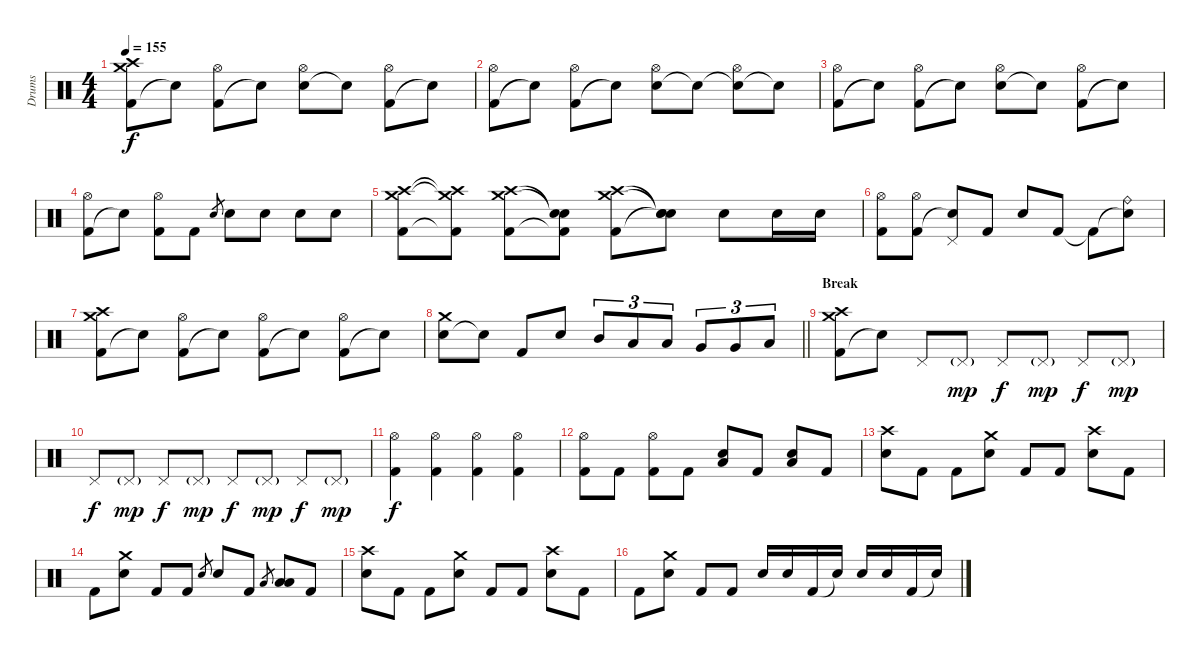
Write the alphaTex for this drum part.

\track ("Drums" "Drums") {instrument percussion}
\staff {score}
\articulation defaults
\ts (4 4)
\tempo 155
\clef neutral
\ks c
("Kick (hit) 2" "Crash medium (hit)" "Crash high (hit)").8{dy f} "Snare (hit)"{t}.8 ("Kick (hit) 2" "Hi-Hat (open)").8 "Snare (hit)"{t}.8 ("Electric Snare (hit)" "Hi-Hat (open)").8 "Snare (hit)"{t}.8 ("Kick (hit) 2" "Hi-Hat (open)").8 "Snare (hit)"{t}.8 |
("Kick (hit) 2" "Hi-Hat (open)").8 "Snare (hit)"{t}.8 ("Kick (hit) 2" "Hi-Hat (open)").8 "Snare (hit)"{t}.8 ("Electric Snare (hit)" "Hi-Hat (open)").8 "Snare (hit)"{t}.8 ("Snare (hit)"{t} "Hi-Hat (open)").8 "Snare (hit)"{t}.8 |
("Kick (hit) 2" "Hi-Hat (open)").8 "Snare (hit)"{t}.8 ("Kick (hit) 2" "Hi-Hat (open)").8 "Snare (hit)"{t}.8 ("Electric Snare (hit)" "Hi-Hat (open)").8 "Snare (hit)"{t}.8 ("Kick (hit) 2" "Hi-Hat (open)").8 "Snare (hit)"{t}.8 |
("Kick (hit) 2" "Hi-Hat (open)").8 "Snare (hit)"{t}.8 ("Kick (hit) 2" "Hi-Hat (open)").8 "Kick (hit) 2".8 "Electric Snare (hit)".8{gr} "Electric Snare (hit)".8 "Electric Snare (hit)".8 "Electric Snare (hit)".8 "Electric Snare (hit)".8 |
("Kick (hit) 2" "Crash high (hit)" "Crash medium (hit)").8 ("Kick (hit) 2"{t} "Crash high (hit)"{t} "Crash medium (hit)"{t}).8 ("Kick (hit) 2" "Crash high (hit)" "Crash medium (hit)").8 ("Kick (hit) 2"{t} "Snare (hit)"{t} "Snare (hit)"{t}).8 ("Kick (hit) 2" "Crash high (hit)" "Crash medium (hit)").8 ("Snare (hit)"{t} "Snare (hit)"{t} "Snare (hit)"{t}).8 "Electric Snare (hit)".8 "Electric Snare (hit)".16 "Electric Snare (hit)".16 |
("Kick (hit) 2" "Hi-Hat (open)").8 ("Kick (hit) 2" "Hi-Hat (open)").8 ("Snare (hit)"{t} "Pedal Hi-Hat (hit)").8 "Kick (hit) 2".8 "Electric Snare (hit)".8 "Kick (hit) 2".8 "Kick (hit) 2"{t}.8 ("Snare (hit)"{t} "Ride (bell)").8 |
("Kick (hit) 2" "Crash medium (hit)" "Crash high (hit)").8 "Snare (hit)"{t}.8 ("Kick (hit) 2" "Hi-Hat (open)").8 "Snare (hit)"{t}.8 ("Kick (hit) 2" "Hi-Hat (open)").8 "Snare (hit)"{t}.8 ("Kick (hit) 2" "Hi-Hat (open)").8 "Snare (hit)"{t}.8 |
\barLineRight lightlight
("Electric Snare (hit)" "Crash medium (hit)").8 "Snare (hit)"{t}.8 "Kick (hit) 2".8 "Electric Snare (hit)".8 "Mid Tom (hit)".8{tu (3 2)} "Low Tom (hit)".8{tu (3 2)} "Low Tom (hit)".8{tu (3 2)} "Very Low Tom (hit)".8{tu (3 2)} "Very Low Tom (hit)".8{tu (3 2)} "Low Floor Tom (hit)".8{tu (3 2)} |
\section ("" "Break")
("Kick (hit) 2" "Crash medium (hit)" "Crash high (hit)").8 "Snare (hit)"{t}.8 "Pedal Hi-Hat (hit)".8 "Pedal Hi-Hat (hit)"{g}.8{dy mp} "Pedal Hi-Hat (hit)".8{dy f} "Pedal Hi-Hat (hit)"{g}.8{dy mp} "Pedal Hi-Hat (hit)".8{dy f} "Pedal Hi-Hat (hit)"{g}.8{dy mp} |
"Pedal Hi-Hat (hit)".8{dy f} "Pedal Hi-Hat (hit)"{g}.8{dy mp} "Pedal Hi-Hat (hit)".8{dy f} "Pedal Hi-Hat (hit)"{g}.8{dy mp} "Pedal Hi-Hat (hit)".8{dy f} "Pedal Hi-Hat (hit)"{g}.8{dy mp} "Pedal Hi-Hat (hit)".8{dy f} "Pedal Hi-Hat (hit)"{g}.8{dy mp} |
("Kick (hit) 2" "Hi-Hat (open)").4{dy f} ("Kick (hit) 2" "Hi-Hat (open)").4 ("Kick (hit) 2" "Hi-Hat (open)").4 ("Kick (hit) 2" "Hi-Hat (open)").4 |
("Kick (hit) 2" "Hi-Hat (open)").8 "Kick (hit) 2".8 ("Kick (hit) 2" "Hi-Hat (open)").8 "Kick (hit) 2".8 ("Electric Snare (hit)" "Low Floor Tom (hit)").8 "Kick (hit) 2".8 ("Electric Snare (hit)" "Low Floor Tom (hit)").8 "Kick (hit) 2".8 |
("Electric Snare (hit)" "Crash high (hit)").8 "Kick (hit) 2".8 "Kick (hit) 2".8 ("Electric Snare (hit)" "Crash medium (hit)").8 "Kick (hit) 2".8 "Kick (hit) 2".8 ("Electric Snare (hit)" "Crash high (hit)").8 "Kick (hit) 2".8 |
"Kick (hit) 2".8 ("Electric Snare (hit)" "Crash medium (hit)").8 "Kick (hit) 2".8 "Kick (hit) 2".8 "Electric Snare (hit)".8{gr} "Electric Snare (hit)".8 "Kick (hit) 2".8 "Low Tom (hit)".8{gr} ("Low Tom (hit)" "Low Floor Tom (hit)").8 "Kick (hit) 2".8 |
("Electric Snare (hit)" "Crash high (hit)").8 "Kick (hit) 2".8 "Kick (hit) 2".8 ("Electric Snare (hit)" "Crash medium (hit)").8 "Kick (hit) 2".8 "Kick (hit) 2".8 ("Electric Snare (hit)" "Crash high (hit)").8 "Kick (hit) 2".8 |
"Kick (hit) 2".8 ("Electric Snare (hit)" "Crash medium (hit)").8 "Kick (hit) 2".8 "Kick (hit) 2".8 "Electric Snare (hit)".16 "Electric Snare (hit)".16 "Kick (hit) 2".16 "Snare (hit)"{t}.16 "Electric Snare (hit)".16 "Electric Snare (hit)".16 "Kick (hit) 2".16 "Snare (hit)"{t}.16
